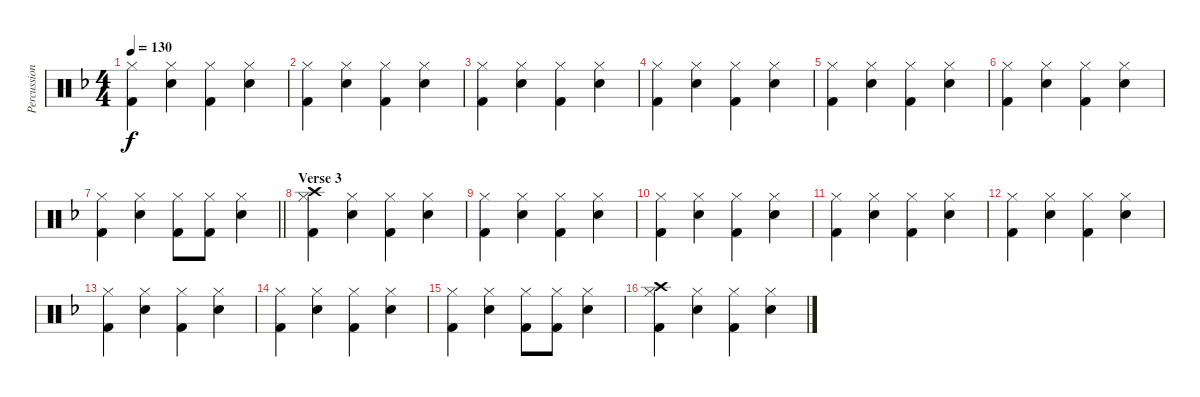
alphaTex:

\track ("Percussions" "Percussion") {instrument percussion}
\staff {score}
\articulation defaults
\ts (4 4)
\tempo 130
\clef neutral
\ks f
("Kick (hit) 2" "Hi-Hat (closed)").4{dy f} ("Snare (hit) 2" "Hi-Hat (closed)").4 ("Kick (hit) 2" "Hi-Hat (closed)").4 ("Snare (hit) 2" "Hi-Hat (closed)").4 |
("Kick (hit) 2" "Hi-Hat (closed)").4 ("Snare (hit) 2" "Hi-Hat (closed)").4 ("Kick (hit) 2" "Hi-Hat (closed)").4 ("Snare (hit) 2" "Hi-Hat (closed)").4 |
("Kick (hit) 2" "Hi-Hat (closed)").4 ("Snare (hit) 2" "Hi-Hat (closed)").4 ("Kick (hit) 2" "Hi-Hat (closed)").4 ("Snare (hit) 2" "Hi-Hat (closed)").4 |
("Kick (hit) 2" "Hi-Hat (closed)").4 ("Snare (hit) 2" "Hi-Hat (closed)").4 ("Kick (hit) 2" "Hi-Hat (closed)").4 ("Snare (hit) 2" "Hi-Hat (closed)").4 |
("Kick (hit) 2" "Hi-Hat (closed)").4 ("Snare (hit) 2" "Hi-Hat (closed)").4 ("Kick (hit) 2" "Hi-Hat (closed)").4 ("Snare (hit) 2" "Hi-Hat (closed)").4 |
("Kick (hit) 2" "Hi-Hat (closed)").4 ("Snare (hit) 2" "Hi-Hat (closed)").4 ("Kick (hit) 2" "Hi-Hat (closed)").4 ("Snare (hit) 2" "Hi-Hat (closed)").4 |
\barLineRight lightlight
("Kick (hit) 2" "Hi-Hat (closed)").4 ("Snare (hit) 2" "Hi-Hat (closed)").4 ("Kick (hit) 2" "Hi-Hat (closed)").8 ("Kick (hit) 2" "Hi-Hat (closed)").8 ("Snare (hit) 2" "Hi-Hat (closed)").4 |
\section ("" "Verse 3")
("Kick (hit) 2" "Hi-Hat (closed)" "Crash high (hit)").4 ("Snare (hit) 2" "Hi-Hat (closed)").4 ("Kick (hit) 2" "Hi-Hat (closed)").4 ("Snare (hit) 2" "Hi-Hat (closed)").4 |
("Kick (hit) 2" "Hi-Hat (closed)").4 ("Snare (hit) 2" "Hi-Hat (closed)").4 ("Kick (hit) 2" "Hi-Hat (closed)").4 ("Snare (hit) 2" "Hi-Hat (closed)").4 |
("Kick (hit) 2" "Hi-Hat (closed)").4 ("Snare (hit) 2" "Hi-Hat (closed)").4 ("Kick (hit) 2" "Hi-Hat (closed)").4 ("Snare (hit) 2" "Hi-Hat (closed)").4 |
("Kick (hit) 2" "Hi-Hat (closed)").4 ("Snare (hit) 2" "Hi-Hat (closed)").4 ("Kick (hit) 2" "Hi-Hat (closed)").4 ("Snare (hit) 2" "Hi-Hat (closed)").4 |
("Kick (hit) 2" "Hi-Hat (closed)").4 ("Snare (hit) 2" "Hi-Hat (closed)").4 ("Kick (hit) 2" "Hi-Hat (closed)").4 ("Snare (hit) 2" "Hi-Hat (closed)").4 |
("Kick (hit) 2" "Hi-Hat (closed)").4 ("Snare (hit) 2" "Hi-Hat (closed)").4 ("Kick (hit) 2" "Hi-Hat (closed)").4 ("Snare (hit) 2" "Hi-Hat (closed)").4 |
("Kick (hit) 2" "Hi-Hat (closed)").4 ("Snare (hit) 2" "Hi-Hat (closed)").4 ("Kick (hit) 2" "Hi-Hat (closed)").4 ("Snare (hit) 2" "Hi-Hat (closed)").4 |
("Kick (hit) 2" "Hi-Hat (closed)").4 ("Snare (hit) 2" "Hi-Hat (closed)").4 ("Kick (hit) 2" "Hi-Hat (closed)").8 ("Kick (hit) 2" "Hi-Hat (closed)").8 ("Snare (hit) 2" "Hi-Hat (closed)").4 |
("Kick (hit) 2" "Hi-Hat (closed)" "Crash high (hit)").4 ("Snare (hit) 2" "Hi-Hat (closed)").4 ("Kick (hit) 2" "Hi-Hat (closed)").4 ("Snare (hit) 2" "Hi-Hat (closed)").4
